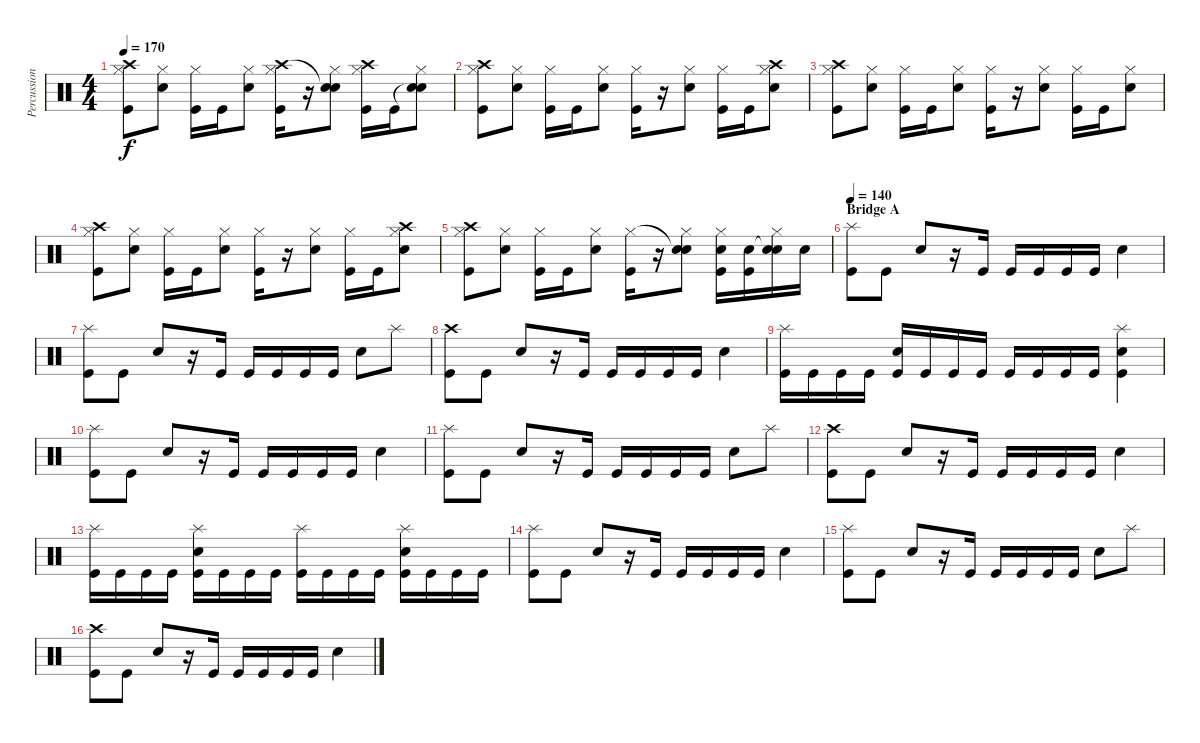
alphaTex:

\track ("Percussion" "Percussion") {instrument percussion}
\staff {score}
\articulation defaults
\ts (4 4)
\tempo 170
\clef neutral
\ks c
("Crash high (hit)" "Hi-Hat (closed)" "Kick (hit)").8{dy f} ("Hi-Hat (closed)" "Electric Snare (hit)").8 ("Hi-Hat (closed)" "Kick (hit)").16 "Kick (hit)".16 ("Hi-Hat (closed)" "Electric Snare (hit)").8 ("Crash high (hit)" "Hi-Hat (closed)" "Kick (hit)").16 r.16 ("Snare (hit)"{t} "Hi-Hat (closed)" "Electric Snare (hit)").8 ("Crash high (hit)" "Hi-Hat (closed)" "Kick (hit)").16 "Kick (hit)".16 ("Snare (hit)"{t} "Hi-Hat (closed)" "Electric Snare (hit)").8 |
("Crash high (hit)" "Hi-Hat (closed)" "Kick (hit)").8 ("Hi-Hat (closed)" "Electric Snare (hit)").8 ("Hi-Hat (closed)" "Kick (hit)").16 "Kick (hit)".16 ("Hi-Hat (closed)" "Electric Snare (hit)").8 ("Hi-Hat (closed)" "Kick (hit)").16 r.16 ("Hi-Hat (closed)" "Electric Snare (hit)").8 ("Hi-Hat (closed)" "Kick (hit)").16 "Kick (hit)".16 ("Crash high (hit)" "Hi-Hat (closed)" "Electric Snare (hit)").8 |
("Crash high (hit)" "Hi-Hat (closed)" "Kick (hit)").8 ("Hi-Hat (closed)" "Electric Snare (hit)").8 ("Hi-Hat (closed)" "Kick (hit)").16 "Kick (hit)".16 ("Hi-Hat (closed)" "Electric Snare (hit)").8 ("Hi-Hat (closed)" "Kick (hit)").16 r.16 ("Hi-Hat (closed)" "Electric Snare (hit)").8 ("Hi-Hat (closed)" "Kick (hit)").16 "Kick (hit)".16 ("Hi-Hat (closed)" "Electric Snare (hit)").8 |
("Crash high (hit)" "Hi-Hat (closed)" "Kick (hit)").8 ("Hi-Hat (closed)" "Electric Snare (hit)").8 ("Hi-Hat (closed)" "Kick (hit)").16 "Kick (hit)".16 ("Hi-Hat (closed)" "Electric Snare (hit)").8 ("Hi-Hat (closed)" "Kick (hit)").16 r.16 ("Hi-Hat (closed)" "Electric Snare (hit)").8 ("Hi-Hat (closed)" "Kick (hit)").16 "Kick (hit)".16 ("Crash high (hit)" "Hi-Hat (closed)" "Electric Snare (hit)").8 |
("Crash high (hit)" "Hi-Hat (closed)" "Kick (hit)").8 ("Hi-Hat (closed)" "Electric Snare (hit)").8 ("Hi-Hat (closed)" "Kick (hit)").16 "Kick (hit)".16 ("Hi-Hat (closed)" "Electric Snare (hit)").8 ("Hi-Hat (closed)" "Kick (hit)").16 r.16 ("Snare (hit)"{t} "Hi-Hat (closed)" "Electric Snare (hit)").8 ("Hi-Hat (closed)" "Electric Snare (hit)" "Kick (hit)").16 ("Electric Snare (hit)" "Kick (hit)").16 ("Snare (hit)"{t} "Hi-Hat (closed)" "Electric Snare (hit)").16 "Electric Snare (hit)".16 |
\section ("" "Bridge A")
\tempo 140
("Splash (hit)" "Kick (hit)").8 "Kick (hit)".8 "Electric Snare (hit)".8 r.16 "Kick (hit)".16 "Kick (hit)".16 "Kick (hit)".16 "Kick (hit)".16 "Kick (hit)".16 "Electric Snare (hit)".4 |
("Splash (hit)" "Kick (hit)").8 "Kick (hit)".8 "Electric Snare (hit)".8 r.16 "Kick (hit)".16 "Kick (hit)".16 "Kick (hit)".16 "Kick (hit)".16 "Kick (hit)".16 "Electric Snare (hit)".8 "Splash (hit)".8 |
("Crash high (hit)" "Kick (hit)").8 "Kick (hit)".8 "Electric Snare (hit)".8 r.16 "Kick (hit)".16 "Kick (hit)".16 "Kick (hit)".16 "Kick (hit)".16 "Kick (hit)".16 "Electric Snare (hit)".4 |
("Splash (hit)" "Kick (hit)").16 "Kick (hit)".16 "Kick (hit)".16 "Kick (hit)".16 ("Electric Snare (hit)" "Kick (hit)").16 "Kick (hit)".16 "Kick (hit)".16 "Kick (hit)".16 "Kick (hit)".16 "Kick (hit)".16 "Kick (hit)".16 "Kick (hit)".16 ("Splash (hit)" "Electric Snare (hit)" "Kick (hit)").4 |
("Splash (hit)" "Kick (hit)").8 "Kick (hit)".8 "Electric Snare (hit)".8 r.16 "Kick (hit)".16 "Kick (hit)".16 "Kick (hit)".16 "Kick (hit)".16 "Kick (hit)".16 "Electric Snare (hit)".4 |
("Splash (hit)" "Kick (hit)").8 "Kick (hit)".8 "Electric Snare (hit)".8 r.16 "Kick (hit)".16 "Kick (hit)".16 "Kick (hit)".16 "Kick (hit)".16 "Kick (hit)".16 "Electric Snare (hit)".8 "Splash (hit)".8 |
("Crash high (hit)" "Kick (hit)").8 "Kick (hit)".8 "Electric Snare (hit)".8 r.16 "Kick (hit)".16 "Kick (hit)".16 "Kick (hit)".16 "Kick (hit)".16 "Kick (hit)".16 "Electric Snare (hit)".4 |
("Splash (hit)" "Kick (hit)").16 "Kick (hit)".16 "Kick (hit)".16 "Kick (hit)".16 ("Splash (hit)" "Electric Snare (hit)" "Kick (hit)").16 "Kick (hit)".16 "Kick (hit)".16 "Kick (hit)".16 ("Splash (hit)" "Kick (hit)").16 "Kick (hit)".16 "Kick (hit)".16 "Kick (hit)".16 ("Splash (hit)" "Electric Snare (hit)" "Kick (hit)").16 "Kick (hit)".16 "Kick (hit)".16 "Kick (hit)".16 |
("Splash (hit)" "Kick (hit)").8 "Kick (hit)".8 "Electric Snare (hit)".8 r.16 "Kick (hit)".16 "Kick (hit)".16 "Kick (hit)".16 "Kick (hit)".16 "Kick (hit)".16 "Electric Snare (hit)".4 |
("Splash (hit)" "Kick (hit)").8 "Kick (hit)".8 "Electric Snare (hit)".8 r.16 "Kick (hit)".16 "Kick (hit)".16 "Kick (hit)".16 "Kick (hit)".16 "Kick (hit)".16 "Electric Snare (hit)".8 "Splash (hit)".8 |
("Crash high (hit)" "Kick (hit)").8 "Kick (hit)".8 "Electric Snare (hit)".8 r.16 "Kick (hit)".16 "Kick (hit)".16 "Kick (hit)".16 "Kick (hit)".16 "Kick (hit)".16 "Electric Snare (hit)".4
